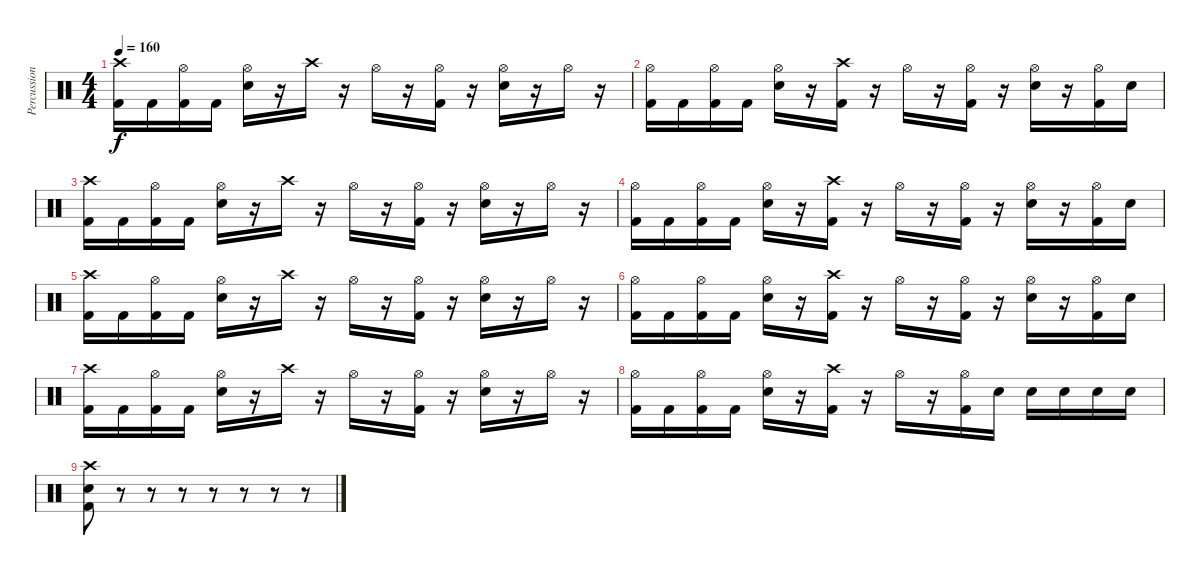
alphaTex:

\track ("Percussion" "Percussion") {instrument percussion}
\staff {score}
\articulation defaults
\ts (4 4)
\tempo 160
\clef neutral
\ks c
("Crash high (hit)" "Kick (hit) 2").16{dy f} "Kick (hit) 2".16 ("Hi-Hat (open)" "Kick (hit) 2").16 "Kick (hit) 2".16 ("Hi-Hat (open)" "Electric Snare (hit)").16 r.16 "Crash high (hit)".16 r.16 "Hi-Hat (open)".16 r.16 ("Hi-Hat (open)" "Kick (hit) 2").16 r.16 ("Hi-Hat (open)" "Electric Snare (hit)").16 r.16 "Hi-Hat (open)".16 r.16 |
("Hi-Hat (open)" "Kick (hit) 2").16 "Kick (hit) 2".16 ("Hi-Hat (open)" "Kick (hit) 2").16 "Kick (hit) 2".16 ("Hi-Hat (open)" "Electric Snare (hit)").16 r.16 ("Crash high (hit)" "Kick (hit) 2").16 r.16 "Hi-Hat (open)".16 r.16 ("Hi-Hat (open)" "Kick (hit) 2").16 r.16 ("Hi-Hat (open)" "Electric Snare (hit)").16 r.16 ("Hi-Hat (open)" "Kick (hit) 2").16 "Electric Snare (hit)".16 |
("Crash high (hit)" "Kick (hit) 2").16 "Kick (hit) 2".16 ("Hi-Hat (open)" "Kick (hit) 2").16 "Kick (hit) 2".16 ("Hi-Hat (open)" "Electric Snare (hit)").16 r.16 "Crash high (hit)".16 r.16 "Hi-Hat (open)".16 r.16 ("Hi-Hat (open)" "Kick (hit) 2").16 r.16 ("Hi-Hat (open)" "Electric Snare (hit)").16 r.16 "Hi-Hat (open)".16 r.16 |
("Hi-Hat (open)" "Kick (hit) 2").16 "Kick (hit) 2".16 ("Hi-Hat (open)" "Kick (hit) 2").16 "Kick (hit) 2".16 ("Hi-Hat (open)" "Electric Snare (hit)").16 r.16 ("Crash high (hit)" "Kick (hit) 2").16 r.16 "Hi-Hat (open)".16 r.16 ("Hi-Hat (open)" "Kick (hit) 2").16 r.16 ("Hi-Hat (open)" "Electric Snare (hit)").16 r.16 ("Hi-Hat (open)" "Kick (hit) 2").16 "Electric Snare (hit)".16 |
("Crash high (hit)" "Kick (hit) 2").16 "Kick (hit) 2".16 ("Hi-Hat (open)" "Kick (hit) 2").16 "Kick (hit) 2".16 ("Hi-Hat (open)" "Electric Snare (hit)").16 r.16 "Crash high (hit)".16 r.16 "Hi-Hat (open)".16 r.16 ("Hi-Hat (open)" "Kick (hit) 2").16 r.16 ("Hi-Hat (open)" "Electric Snare (hit)").16 r.16 "Hi-Hat (open)".16 r.16 |
("Hi-Hat (open)" "Kick (hit) 2").16 "Kick (hit) 2".16 ("Hi-Hat (open)" "Kick (hit) 2").16 "Kick (hit) 2".16 ("Hi-Hat (open)" "Electric Snare (hit)").16 r.16 ("Crash high (hit)" "Kick (hit) 2").16 r.16 "Hi-Hat (open)".16 r.16 ("Hi-Hat (open)" "Kick (hit) 2").16 r.16 ("Hi-Hat (open)" "Electric Snare (hit)").16 r.16 ("Hi-Hat (open)" "Kick (hit) 2").16 "Electric Snare (hit)".16 |
("Crash high (hit)" "Kick (hit) 2").16 "Kick (hit) 2".16 ("Hi-Hat (open)" "Kick (hit) 2").16 "Kick (hit) 2".16 ("Hi-Hat (open)" "Electric Snare (hit)").16 r.16 "Crash high (hit)".16 r.16 "Hi-Hat (open)".16 r.16 ("Hi-Hat (open)" "Kick (hit) 2").16 r.16 ("Hi-Hat (open)" "Electric Snare (hit)").16 r.16 "Hi-Hat (open)".16 r.16 |
("Hi-Hat (open)" "Kick (hit) 2").16 "Kick (hit) 2".16 ("Hi-Hat (open)" "Kick (hit) 2").16 "Kick (hit) 2".16 ("Hi-Hat (open)" "Electric Snare (hit)").16 r.16 ("Crash high (hit)" "Kick (hit) 2").16 r.16 "Hi-Hat (open)".16 r.16 ("Hi-Hat (open)" "Kick (hit) 2").16 "Electric Snare (hit)".16 "Electric Snare (hit)".16 "Electric Snare (hit)".16 "Electric Snare (hit)".16 "Electric Snare (hit)".16 |
("Crash high (hit)" "Electric Snare (hit)" "Kick (hit) 2").8 r.8 r.8 r.8 r.8 r.8 r.8 r.8
